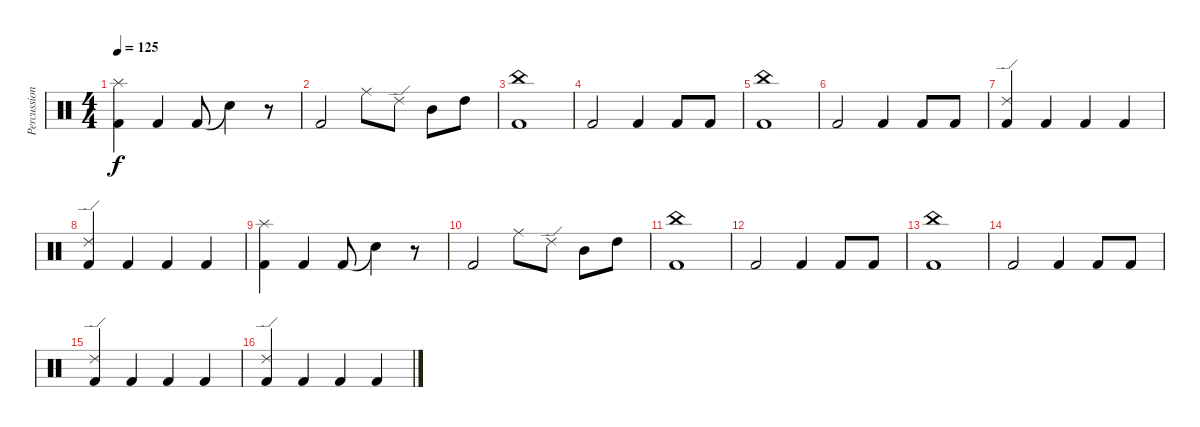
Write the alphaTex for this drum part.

\track ("Percussion" "Percussion") {instrument percussion}
\staff {score}
\articulation defaults
\ts (4 4)
\tempo 125
\clef neutral
\ks c
("Kick (hit) 2" "Splash (hit)").4{dy f} "Kick (hit) 2".4 "Kick (hit) 2".8 "Snare (hit)"{t}.4 r.8 |
"Kick (hit) 2".2 "Ride (middle)".8 "Ride (edge) 2".8 "Mid Tom (hit)".8 "High Tom (hit)".8 |
("Kick (hit) 2" "China (hit)").1 |
"Kick (hit) 2".2 "Kick (hit) 2".4 "Kick (hit) 2".8 "Kick (hit) 2".8 |
("Kick (hit) 2" "China (hit)").1 |
"Kick (hit) 2".2 "Kick (hit) 2".4 "Kick (hit) 2".8 "Kick (hit) 2".8 |
("Kick (hit) 2" "Ride (edge) 2").4 "Kick (hit) 2".4 "Kick (hit) 2".4 "Kick (hit) 2".4 |
("Kick (hit) 2" "Ride (edge) 2").4 "Kick (hit) 2".4 "Kick (hit) 2".4 "Kick (hit) 2".4 |
("Kick (hit) 2" "Splash (hit)").4 "Kick (hit) 2".4 "Kick (hit) 2".8 "Snare (hit)"{t}.4 r.8 |
"Kick (hit) 2".2 "Ride (middle)".8 "Ride (edge) 2".8 "Mid Tom (hit)".8 "High Tom (hit)".8 |
("Kick (hit) 2" "China (hit)").1 |
"Kick (hit) 2".2 "Kick (hit) 2".4 "Kick (hit) 2".8 "Kick (hit) 2".8 |
("Kick (hit) 2" "China (hit)").1 |
"Kick (hit) 2".2 "Kick (hit) 2".4 "Kick (hit) 2".8 "Kick (hit) 2".8 |
("Kick (hit) 2" "Ride (edge) 2").4 "Kick (hit) 2".4 "Kick (hit) 2".4 "Kick (hit) 2".4 |
("Kick (hit) 2" "Ride (edge) 2").4 "Kick (hit) 2".4 "Kick (hit) 2".4 "Kick (hit) 2".4
